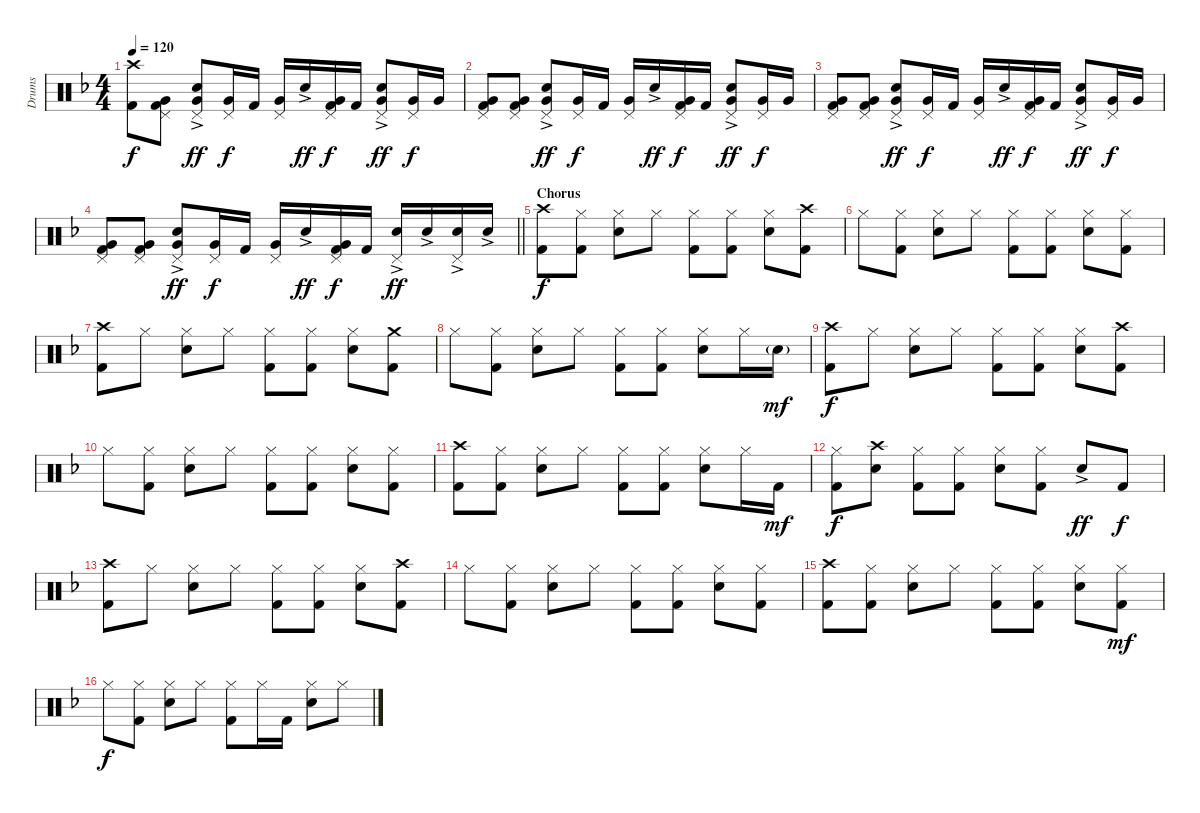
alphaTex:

\track ("Drums" "Drums") {instrument percussion}
\staff {score}
\articulation defaults
\ts (4 4)
\tempo 120
\clef neutral
\ks f
("Crash high (hit)" "Kick (hit) 2").8{dy f} ("Pedal Hi-Hat (hit)" "Very Low Tom (hit)" "Kick (hit) 2").8 ("Pedal Hi-Hat (hit)" "Electric Snare (hit)"{ac} "Very Low Tom (hit)").8{dy ff} ("Pedal Hi-Hat (hit)" "Very Low Tom (hit)").16{dy f} "Kick (hit) 2".16 ("Pedal Hi-Hat (hit)" "Very Low Tom (hit)").16 "Electric Snare (hit)"{ac}.16{dy ff} ("Pedal Hi-Hat (hit)" "Very Low Tom (hit)" "Kick (hit) 2").16{dy f} "Kick (hit) 2".16 ("Pedal Hi-Hat (hit)" "Electric Snare (hit)"{ac} "Very Low Tom (hit)").8{dy ff} ("Pedal Hi-Hat (hit)" "Very Low Tom (hit)").16{dy f} "Very Low Tom (hit)".16 |
("Pedal Hi-Hat (hit)" "Very Low Tom (hit)" "Kick (hit) 2").8 ("Pedal Hi-Hat (hit)" "Very Low Tom (hit)" "Kick (hit) 2").8 ("Pedal Hi-Hat (hit)" "Electric Snare (hit)"{ac} "Very Low Tom (hit)").8{dy ff} ("Pedal Hi-Hat (hit)" "Very Low Tom (hit)").16{dy f} "Kick (hit) 2".16 ("Pedal Hi-Hat (hit)" "Very Low Tom (hit)").16 "Electric Snare (hit)"{ac}.16{dy ff} ("Pedal Hi-Hat (hit)" "Very Low Tom (hit)" "Kick (hit) 2").16{dy f} "Kick (hit) 2".16 ("Pedal Hi-Hat (hit)" "Electric Snare (hit)"{ac} "Very Low Tom (hit)").8{dy ff} ("Pedal Hi-Hat (hit)" "Very Low Tom (hit)").16{dy f} "Very Low Tom (hit)".16 |
("Pedal Hi-Hat (hit)" "Very Low Tom (hit)" "Kick (hit) 2").8 ("Pedal Hi-Hat (hit)" "Very Low Tom (hit)" "Kick (hit) 2").8 ("Pedal Hi-Hat (hit)" "Electric Snare (hit)"{ac} "Very Low Tom (hit)").8{dy ff} ("Pedal Hi-Hat (hit)" "Very Low Tom (hit)").16{dy f} "Kick (hit) 2".16 ("Pedal Hi-Hat (hit)" "Very Low Tom (hit)").16 "Electric Snare (hit)"{ac}.16{dy ff} ("Pedal Hi-Hat (hit)" "Very Low Tom (hit)" "Kick (hit) 2").16{dy f} "Kick (hit) 2".16 ("Pedal Hi-Hat (hit)" "Electric Snare (hit)"{ac} "Very Low Tom (hit)").8{dy ff} ("Pedal Hi-Hat (hit)" "Very Low Tom (hit)").16{dy f} "Very Low Tom (hit)".16 |
\barLineRight lightlight
("Pedal Hi-Hat (hit)" "Very Low Tom (hit)" "Kick (hit) 2").8 ("Pedal Hi-Hat (hit)" "Very Low Tom (hit)" "Kick (hit) 2").8 ("Pedal Hi-Hat (hit)" "Electric Snare (hit)"{ac} "Very Low Tom (hit)").8{dy ff} ("Pedal Hi-Hat (hit)" "Very Low Tom (hit)").16{dy f} "Kick (hit) 2".16 ("Pedal Hi-Hat (hit)" "Very Low Tom (hit)").16 "Electric Snare (hit)"{ac}.16{dy ff} ("Pedal Hi-Hat (hit)" "Very Low Tom (hit)" "Kick (hit) 2").16{dy f} "Kick (hit) 2".16 ("Pedal Hi-Hat (hit)" "Electric Snare (hit)"{ac}).16{dy ff} "Electric Snare (hit)"{ac}.16 ("Pedal Hi-Hat (hit)" "Electric Snare (hit)"{ac}).16 "Electric Snare (hit)"{ac}.16 |
\section ("" "Chorus")
("Crash high (hit)" "Kick (hit) 2").8{dy f} ("Hi-Hat (closed)" "Kick (hit) 2").8 ("Hi-Hat (closed)" "Electric Snare (hit)").8 "Hi-Hat (closed)".8 ("Hi-Hat (closed)" "Kick (hit) 2").8 ("Hi-Hat (closed)" "Kick (hit) 2").8 ("Hi-Hat (closed)" "Electric Snare (hit)").8 ("Crash high (hit)" "Kick (hit) 2").8 |
"Hi-Hat (closed)".8 ("Hi-Hat (closed)" "Kick (hit) 2").8 ("Hi-Hat (closed)" "Electric Snare (hit)").8 "Hi-Hat (closed)".8 ("Hi-Hat (closed)" "Kick (hit) 2").8 ("Hi-Hat (closed)" "Kick (hit) 2").8 ("Hi-Hat (closed)" "Electric Snare (hit)").8 ("Hi-Hat (closed)" "Kick (hit) 2").8 |
("Crash high (hit)" "Kick (hit) 2").8 "Hi-Hat (closed)".8 ("Hi-Hat (closed)" "Electric Snare (hit)").8 "Hi-Hat (closed)".8 ("Hi-Hat (closed)" "Kick (hit) 2").8 ("Hi-Hat (closed)" "Kick (hit) 2").8 ("Hi-Hat (closed)" "Electric Snare (hit)").8 ("Crash medium (hit)" "Kick (hit) 2").8 |
"Hi-Hat (closed)".8 ("Hi-Hat (closed)" "Kick (hit) 2").8 ("Hi-Hat (closed)" "Electric Snare (hit)").8 "Hi-Hat (closed)".8 ("Hi-Hat (closed)" "Kick (hit) 2").8 ("Hi-Hat (closed)" "Kick (hit) 2").8 ("Hi-Hat (closed)" "Electric Snare (hit)").8 "Hi-Hat (closed)".16 "Electric Snare (hit)"{g}.16{dy mf} |
("Crash high (hit)" "Kick (hit) 2").8{dy f} "Hi-Hat (closed)".8 ("Hi-Hat (closed)" "Electric Snare (hit)").8 "Hi-Hat (closed)".8 ("Hi-Hat (closed)" "Kick (hit) 2").8 ("Hi-Hat (closed)" "Kick (hit) 2").8 ("Hi-Hat (closed)" "Electric Snare (hit)").8 ("Crash high (hit)" "Kick (hit) 2").8 |
"Hi-Hat (closed)".8 ("Hi-Hat (closed)" "Kick (hit) 2").8 ("Hi-Hat (closed)" "Electric Snare (hit)").8 "Hi-Hat (closed)".8 ("Hi-Hat (closed)" "Kick (hit) 2").8 ("Hi-Hat (closed)" "Kick (hit) 2").8 ("Hi-Hat (closed)" "Electric Snare (hit)").8 ("Hi-Hat (closed)" "Kick (hit) 2").8 |
("Crash high (hit)" "Kick (hit) 2").8 ("Hi-Hat (closed)" "Kick (hit) 2").8 ("Hi-Hat (closed)" "Electric Snare (hit)").8 "Hi-Hat (closed)".8 ("Hi-Hat (closed)" "Kick (hit) 2").8 ("Hi-Hat (closed)" "Kick (hit) 2").8 ("Hi-Hat (closed)" "Electric Snare (hit)").8 "Hi-Hat (closed)".16 "Kick (hit) 2".16{dy mf} |
("Hi-Hat (closed)" "Kick (hit) 2").8{dy f} ("Crash high (hit)" "Electric Snare (hit)").8 ("Hi-Hat (closed)" "Kick (hit) 2").8 ("Hi-Hat (closed)" "Kick (hit) 2").8 ("Hi-Hat (closed)" "Electric Snare (hit)").8 ("Hi-Hat (closed)" "Kick (hit) 2").8 "Electric Snare (hit)"{ac}.8{dy ff} "Kick (hit) 2".8{dy f} |
("Crash high (hit)" "Kick (hit) 2").8 "Hi-Hat (closed)".8 ("Hi-Hat (closed)" "Electric Snare (hit)").8 "Hi-Hat (closed)".8 ("Hi-Hat (closed)" "Kick (hit) 2").8 ("Hi-Hat (closed)" "Kick (hit) 2").8 ("Hi-Hat (closed)" "Electric Snare (hit)").8 ("Crash high (hit)" "Kick (hit) 2").8 |
"Hi-Hat (closed)".8 ("Hi-Hat (closed)" "Kick (hit) 2").8 ("Hi-Hat (closed)" "Electric Snare (hit)").8 "Hi-Hat (closed)".8 ("Hi-Hat (closed)" "Kick (hit) 2").8 ("Hi-Hat (closed)" "Kick (hit) 2").8 ("Hi-Hat (closed)" "Electric Snare (hit)").8 ("Hi-Hat (closed)" "Kick (hit) 2").8 |
("Crash high (hit)" "Kick (hit) 2").8 ("Hi-Hat (closed)" "Kick (hit) 2").8 ("Hi-Hat (closed)" "Electric Snare (hit)").8 "Hi-Hat (closed)".8 ("Hi-Hat (closed)" "Kick (hit) 2").8 ("Hi-Hat (closed)" "Kick (hit) 2").8 ("Hi-Hat (closed)" "Electric Snare (hit)").8 ("Hi-Hat (closed)" "Kick (hit) 2").8{dy mf} |
"Hi-Hat (closed)".8{dy f} ("Hi-Hat (closed)" "Kick (hit) 2").8 ("Hi-Hat (closed)" "Electric Snare (hit)").8 "Hi-Hat (closed)".8 ("Hi-Hat (closed)" "Kick (hit) 2").8 "Hi-Hat (closed)".16 "Kick (hit) 2".16 ("Hi-Hat (closed)" "Electric Snare (hit)").8 "Hi-Hat (closed)".8
